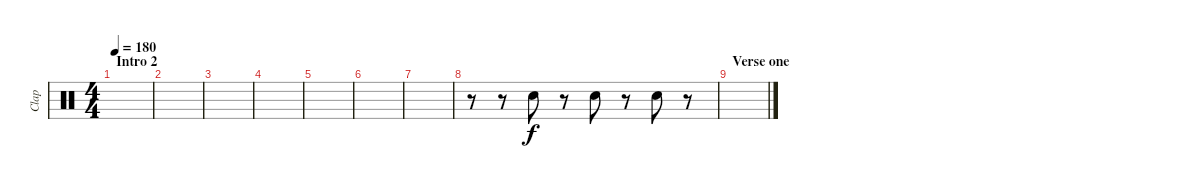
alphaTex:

\track ("Clap" "Clap") {instrument percussion}
\staff {score}
\articulation defaults
\ts (4 4)
\section ("" "Intro 2")
\tempo 180
\clef neutral
\ks c
|
|
|
|
|
|
|
r.8 r.8 "Hand Clap (hit)".8 r.8 "Hand Clap (hit)".8 r.8 "Hand Clap (hit)".8 r.8 |
\section ("" "Verse one")
